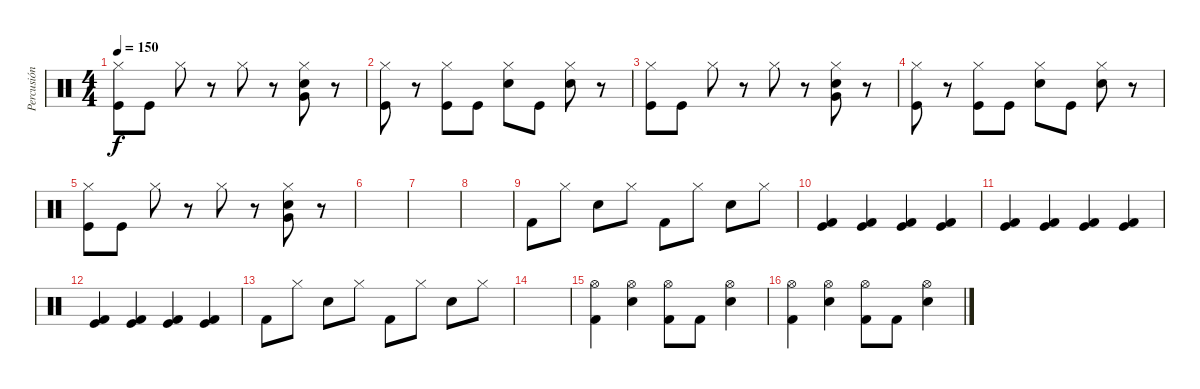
\track ("Percusión" "Percusión") {instrument percussion}
\staff {score}
\articulation defaults
\ts (4 4)
\tempo 150
\clef neutral
\ks c
("Hi-Hat (closed)" "Kick (hit)").8{dy f} "Kick (hit)".8 "Hi-Hat (closed)".8 r.8 "Hi-Hat (closed)".8 r.8 ("Hi-Hat (closed)" "Very Low Tom (hit)" "Snare (hit) 2").8 r.8 |
("Hi-Hat (closed)" "Kick (hit)").8 r.8 ("Hi-Hat (closed)" "Kick (hit)").8 "Kick (hit)".8 ("Hi-Hat (closed)" "Snare (hit) 2").8 "Kick (hit)".8 ("Hi-Hat (closed)" "Snare (hit) 2").8 r.8 |
("Hi-Hat (closed)" "Kick (hit)").8 "Kick (hit)".8 "Hi-Hat (closed)".8 r.8 "Hi-Hat (closed)".8 r.8 ("Hi-Hat (closed)" "Very Low Tom (hit)" "Snare (hit) 2").8 r.8 |
("Hi-Hat (closed)" "Kick (hit)").8 r.8 ("Hi-Hat (closed)" "Kick (hit)").8 "Kick (hit)".8 ("Hi-Hat (closed)" "Snare (hit) 2").8 "Kick (hit)".8 ("Hi-Hat (closed)" "Snare (hit) 2").8 r.8 |
("Hi-Hat (closed)" "Kick (hit)").8 "Kick (hit)".8 "Hi-Hat (closed)".8 r.8 "Hi-Hat (closed)".8 r.8 ("Hi-Hat (closed)" "Very Low Tom (hit)" "Snare (hit) 2").8 r.8 |
|
|
|
"Kick (hit) 2".8 "Hi-Hat (closed)".8 "Snare (hit) 2".8 "Hi-Hat (closed)".8 "Kick (hit) 2".8 "Hi-Hat (closed)".8 "Snare (hit) 2".8 "Hi-Hat (closed)".8 |
("Kick (hit) 2" "Kick (hit)").4 ("Kick (hit) 2" "Kick (hit)").4 ("Kick (hit) 2" "Kick (hit)").4 ("Kick (hit) 2" "Kick (hit)").4 |
("Kick (hit) 2" "Kick (hit)").4 ("Kick (hit) 2" "Kick (hit)").4 ("Kick (hit) 2" "Kick (hit)").4 ("Kick (hit) 2" "Kick (hit)").4 |
("Kick (hit) 2" "Kick (hit)").4 ("Kick (hit) 2" "Kick (hit)").4 ("Kick (hit) 2" "Kick (hit)").4 ("Kick (hit) 2" "Kick (hit)").4 |
"Kick (hit) 2".8 "Hi-Hat (closed)".8 "Snare (hit) 2".8 "Hi-Hat (closed)".8 "Kick (hit) 2".8 "Hi-Hat (closed)".8 "Snare (hit) 2".8 "Hi-Hat (closed)".8 |
|
("Hi-Hat (open)" "Kick (hit) 2").4 ("Hi-Hat (open)" "Electric Snare (hit)").4 ("Hi-Hat (open)" "Kick (hit) 2").8 "Kick (hit) 2".8 ("Hi-Hat (open)" "Electric Snare (hit)").4 |
("Hi-Hat (open)" "Kick (hit) 2").4 ("Hi-Hat (open)" "Electric Snare (hit)").4 ("Hi-Hat (open)" "Kick (hit) 2").8 "Kick (hit) 2".8 ("Hi-Hat (open)" "Electric Snare (hit)").4
